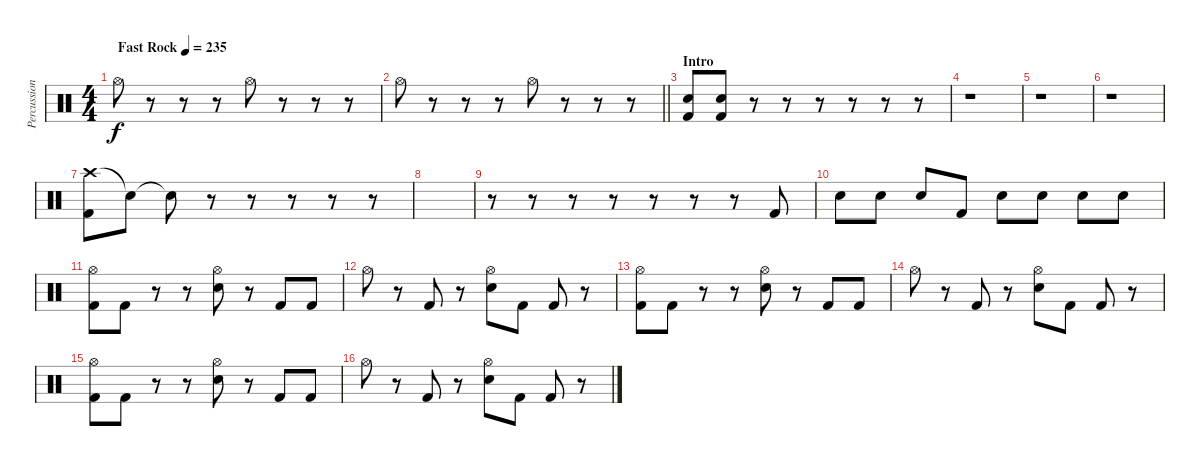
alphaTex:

\track ("Percussion" "Percussion") {instrument percussion}
\staff {score}
\articulation defaults
\ts (4 4)
\tempo (235 "Fast Rock")
\clef neutral
\ks c "Hi-Hat (open)".8{dy f}
r.8 r.8 r.8 "Hi-Hat (open)".8 r.8 r.8 r.8 |
\barLineRight lightlight "Hi-Hat (open)".8
r.8 r.8 r.8 "Hi-Hat (open)".8 r.8 r.8 r.8 |
\section ("" "Intro")
("Electric Snare (hit)" "Kick (hit) 2").8 ("Electric Snare (hit)" "Kick (hit) 2").8 r.8 r.8 r.8 r.8 r.8 r.8 |
r.1 |
r.1 |
r.1 |
("Crash high (hit)" "Kick (hit) 2").8 "Snare (hit)"{t}.8 "Snare (hit)"{t}.8 r.8 r.8 r.8 r.8 r.8 |
|
r.8 r.8 r.8 r.8 r.8 r.8 r.8 "Kick (hit) 2".8 |
"Snare (hit) 2".8 "Snare (hit) 2".8 "Snare (hit) 2".8 "Kick (hit) 2".8 "Snare (hit) 2".8 "Snare (hit) 2".8 "Snare (hit) 2".8 "Snare (hit) 2".8 |
("Hi-Hat (open)" "Kick (hit) 2").8 "Kick (hit) 2".8 r.8 r.8 ("Hi-Hat (open)" "Snare (hit) 2").8 r.8 "Kick (hit) 2".8 "Kick (hit) 2".8 |
"Hi-Hat (open)".8 r.8 "Kick (hit) 2".8 r.8 ("Hi-Hat (open)" "Snare (hit) 2").8 "Kick (hit) 2".8 "Kick (hit) 2".8 r.8 |
("Hi-Hat (open)" "Kick (hit) 2").8 "Kick (hit) 2".8 r.8 r.8 ("Hi-Hat (open)" "Snare (hit) 2").8 r.8 "Kick (hit) 2".8 "Kick (hit) 2".8 |
"Hi-Hat (open)".8 r.8 "Kick (hit) 2".8 r.8 ("Hi-Hat (open)" "Snare (hit) 2").8 "Kick (hit) 2".8 "Kick (hit) 2".8 r.8 |
("Hi-Hat (open)" "Kick (hit) 2").8 "Kick (hit) 2".8 r.8 r.8 ("Hi-Hat (open)" "Snare (hit) 2").8 r.8 "Kick (hit) 2".8 "Kick (hit) 2".8 |
"Hi-Hat (open)".8 r.8 "Kick (hit) 2".8 r.8 ("Hi-Hat (open)" "Snare (hit) 2").8 "Kick (hit) 2".8 "Kick (hit) 2".8 r.8
